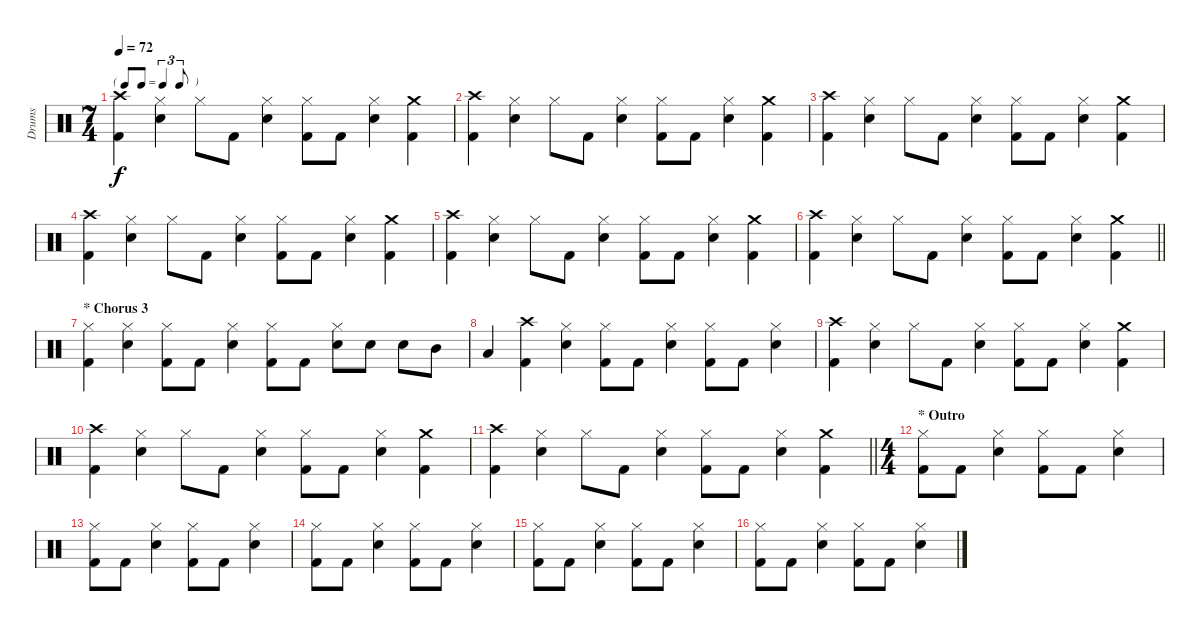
\track ("Drums" "Drums") {instrument percussion}
\staff {score}
\articulation defaults
\ts (7 4)
\tf triplet8th
\tempo 72
\clef neutral
\ks c
("Crash high (hit)" "Kick (hit) 2").4{dy f} ("Hi-Hat (closed)" "Electric Snare (hit)").4 "Hi-Hat (closed)".8 "Kick (hit) 2".8 ("Hi-Hat (closed)" "Electric Snare (hit)").4 ("Hi-Hat (closed)" "Kick (hit) 2").8 "Kick (hit) 2".8 ("Hi-Hat (closed)" "Electric Snare (hit)").4 ("Crash medium (hit)" "Kick (hit) 2").4 |
("Crash high (hit)" "Kick (hit) 2").4 ("Hi-Hat (closed)" "Electric Snare (hit)").4 "Hi-Hat (closed)".8 "Kick (hit) 2".8 ("Hi-Hat (closed)" "Electric Snare (hit)").4 ("Hi-Hat (closed)" "Kick (hit) 2").8 "Kick (hit) 2".8 ("Hi-Hat (closed)" "Electric Snare (hit)").4 ("Crash medium (hit)" "Kick (hit) 2").4 |
("Crash high (hit)" "Kick (hit) 2").4 ("Hi-Hat (closed)" "Electric Snare (hit)").4 "Hi-Hat (closed)".8 "Kick (hit) 2".8 ("Hi-Hat (closed)" "Electric Snare (hit)").4 ("Hi-Hat (closed)" "Kick (hit) 2").8 "Kick (hit) 2".8 ("Hi-Hat (closed)" "Electric Snare (hit)").4 ("Crash medium (hit)" "Kick (hit) 2").4 |
("Crash high (hit)" "Kick (hit) 2").4 ("Hi-Hat (closed)" "Electric Snare (hit)").4 "Hi-Hat (closed)".8 "Kick (hit) 2".8 ("Hi-Hat (closed)" "Electric Snare (hit)").4 ("Hi-Hat (closed)" "Kick (hit) 2").8 "Kick (hit) 2".8 ("Hi-Hat (closed)" "Electric Snare (hit)").4 ("Crash medium (hit)" "Kick (hit) 2").4 |
("Crash high (hit)" "Kick (hit) 2").4 ("Hi-Hat (closed)" "Electric Snare (hit)").4 "Hi-Hat (closed)".8 "Kick (hit) 2".8 ("Hi-Hat (closed)" "Electric Snare (hit)").4 ("Hi-Hat (closed)" "Kick (hit) 2").8 "Kick (hit) 2".8 ("Hi-Hat (closed)" "Electric Snare (hit)").4 ("Crash medium (hit)" "Kick (hit) 2").4 |
\barLineRight lightlight
("Crash high (hit)" "Kick (hit) 2").4 ("Hi-Hat (closed)" "Electric Snare (hit)").4 "Hi-Hat (closed)".8 "Kick (hit) 2".8 ("Hi-Hat (closed)" "Electric Snare (hit)").4 ("Hi-Hat (closed)" "Kick (hit) 2").8 "Kick (hit) 2".8 ("Hi-Hat (closed)" "Electric Snare (hit)").4 ("Crash medium (hit)" "Kick (hit) 2").4 |
\section ("" "* Chorus 3")
("Hi-Hat (closed)" "Kick (hit) 2").4 ("Hi-Hat (closed)" "Electric Snare (hit)").4 ("Hi-Hat (closed)" "Kick (hit) 2").8 "Kick (hit) 2".8 ("Hi-Hat (closed)" "Electric Snare (hit)").4 ("Hi-Hat (closed)" "Kick (hit) 2").8 "Kick (hit) 2".8 ("Hi-Hat (closed)" "Electric Snare (hit)").8 "Electric Snare (hit)".8 "Electric Snare (hit)".8 "Mid Tom (hit)".8 |
"Low Tom (hit)".4 ("Crash high (hit)" "Kick (hit) 2").4 ("Hi-Hat (closed)" "Electric Snare (hit)").4 ("Hi-Hat (closed)" "Kick (hit) 2").8 "Kick (hit) 2".8 ("Hi-Hat (closed)" "Electric Snare (hit)").4 ("Hi-Hat (closed)" "Kick (hit) 2").8 "Kick (hit) 2".8 ("Hi-Hat (closed)" "Electric Snare (hit)").4 |
("Crash high (hit)" "Kick (hit) 2").4 ("Hi-Hat (closed)" "Electric Snare (hit)").4 "Hi-Hat (closed)".8 "Kick (hit) 2".8 ("Hi-Hat (closed)" "Electric Snare (hit)").4 ("Hi-Hat (closed)" "Kick (hit) 2").8 "Kick (hit) 2".8 ("Hi-Hat (closed)" "Electric Snare (hit)").4 ("Crash medium (hit)" "Kick (hit) 2").4 |
("Crash high (hit)" "Kick (hit) 2").4 ("Hi-Hat (closed)" "Electric Snare (hit)").4 "Hi-Hat (closed)".8 "Kick (hit) 2".8 ("Hi-Hat (closed)" "Electric Snare (hit)").4 ("Hi-Hat (closed)" "Kick (hit) 2").8 "Kick (hit) 2".8 ("Hi-Hat (closed)" "Electric Snare (hit)").4 ("Crash medium (hit)" "Kick (hit) 2").4 |
\barLineRight lightlight
("Crash high (hit)" "Kick (hit) 2").4 ("Hi-Hat (closed)" "Electric Snare (hit)").4 "Hi-Hat (closed)".8 "Kick (hit) 2".8 ("Hi-Hat (closed)" "Electric Snare (hit)").4 ("Hi-Hat (closed)" "Kick (hit) 2").8 "Kick (hit) 2".8 ("Hi-Hat (closed)" "Electric Snare (hit)").4 ("Crash medium (hit)" "Kick (hit) 2").4 |
\ts (4 4)
\section ("" "* Outro")
("Hi-Hat (closed)" "Kick (hit) 2").8 "Kick (hit) 2".8 ("Hi-Hat (closed)" "Electric Snare (hit)").4 ("Hi-Hat (closed)" "Kick (hit) 2").8 "Kick (hit) 2".8 ("Hi-Hat (closed)" "Electric Snare (hit)").4 |
("Hi-Hat (closed)" "Kick (hit) 2").8 "Kick (hit) 2".8 ("Hi-Hat (closed)" "Electric Snare (hit)").4 ("Hi-Hat (closed)" "Kick (hit) 2").8 "Kick (hit) 2".8 ("Hi-Hat (closed)" "Electric Snare (hit)").4 |
("Hi-Hat (closed)" "Kick (hit) 2").8 "Kick (hit) 2".8 ("Hi-Hat (closed)" "Electric Snare (hit)").4 ("Hi-Hat (closed)" "Kick (hit) 2").8 "Kick (hit) 2".8 ("Hi-Hat (closed)" "Electric Snare (hit)").4 |
("Hi-Hat (closed)" "Kick (hit) 2").8 "Kick (hit) 2".8 ("Hi-Hat (closed)" "Electric Snare (hit)").4 ("Hi-Hat (closed)" "Kick (hit) 2").8 "Kick (hit) 2".8 ("Hi-Hat (closed)" "Electric Snare (hit)").4 |
("Hi-Hat (closed)" "Kick (hit) 2").8 "Kick (hit) 2".8 ("Hi-Hat (closed)" "Electric Snare (hit)").4 ("Hi-Hat (closed)" "Kick (hit) 2").8 "Kick (hit) 2".8 ("Hi-Hat (closed)" "Electric Snare (hit)").4
